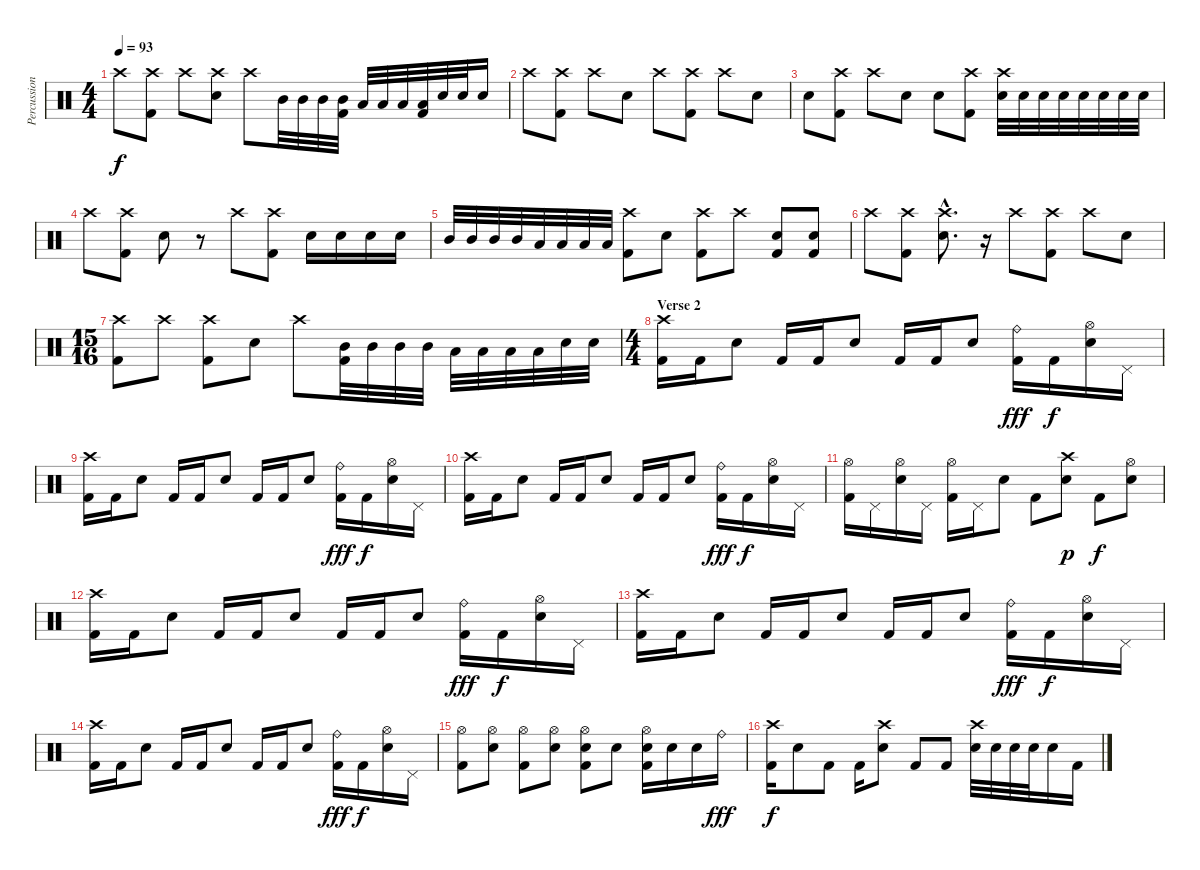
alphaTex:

\track ("Percussion" "Percussion") {instrument percussion}
\staff {score}
\articulation defaults
\ts (4 4)
\tempo 93
\clef neutral
\ks c "Crash high (hit)".8{dy f}
("Crash high (hit)" "Kick (hit) 2").8 "Crash high (hit)".8 ("Crash high (hit)" "Snare (hit) 2").8 "Crash high (hit)".8 "Mid Tom (hit)".32 "Mid Tom (hit)".32 "Mid Tom (hit)".32 ("Mid Tom (hit)" "Kick (hit) 2").32 "Low Tom (hit)".32 "Low Tom (hit)".32 "Low Tom (hit)".32 ("Low Tom (hit)" "Kick (hit) 2").32 "Snare (hit) 2".32 "Snare (hit) 2".32 "Snare (hit) 2".16 |
"Crash high (hit)".8 ("Crash high (hit)" "Kick (hit) 2").8 "Crash high (hit)".8 "Snare (hit) 2".8 "Crash high (hit)".8 ("Crash high (hit)" "Kick (hit) 2").8 "Crash high (hit)".8 "Snare (hit) 2".8 |
"Snare (hit) 2".8 ("Crash high (hit)" "Kick (hit) 2").8 "Crash high (hit)".8 "Snare (hit) 2".8 "Snare (hit) 2".8 ("Crash high (hit)" "Kick (hit) 2").8 ("Crash high (hit)" "Snare (hit) 2").32 "Snare (hit) 2".32 "Snare (hit) 2".32 "Snare (hit) 2".32 "Snare (hit) 2".32 "Snare (hit) 2".32 "Snare (hit) 2".32 "Snare (hit) 2".32 |
"Crash high (hit)".8 ("Crash high (hit)" "Kick (hit) 2").8 "Snare (hit) 2".8 r.8 "Crash high (hit)".8 ("Crash high (hit)" "Kick (hit) 2").8 "Snare (hit) 2".16 "Snare (hit) 2".16 "Snare (hit) 2".16 "Snare (hit) 2".16 |
"Mid Tom (hit)".32 "Mid Tom (hit)".32 "Mid Tom (hit)".32 "Mid Tom (hit)".32 "Low Tom (hit)".32 "Low Tom (hit)".32 "Low Tom (hit)".32 "Low Tom (hit)".32 ("Crash high (hit)" "Kick (hit) 2").8 "Snare (hit) 2".8 ("Crash high (hit)" "Kick (hit) 2").8 "Crash high (hit)".8 ("Snare (hit) 2" "Kick (hit) 2").8 ("Snare (hit) 2" "Kick (hit) 2").8 |
"Crash high (hit)".8 ("Crash high (hit)" "Kick (hit) 2").8 ("Crash high (hit)"{hac} "Snare (hit) 2"{hac}).8{d} r.16 "Crash high (hit)".8 ("Crash high (hit)" "Kick (hit) 2").8 "Crash high (hit)".8 "Snare (hit) 2".8 |
\ts (15 16)
("Crash high (hit)" "Kick (hit) 2").8 "Crash high (hit)".8 ("Crash high (hit)" "Kick (hit) 2").8 "Snare (hit) 2".8 "Crash high (hit)".8 ("Mid Tom (hit)" "Kick (hit) 2").32 "Mid Tom (hit)".32 "Mid Tom (hit)".32 "Mid Tom (hit)".32 "Low Tom (hit)".32 "Low Tom (hit)".32 "Low Tom (hit)".32 "Low Tom (hit)".32 "Snare (hit) 2".32 "Snare (hit) 2".32 |
\ts (4 4)
\section ("" "Verse 2")
("Crash high (hit)" "Kick (hit) 2").16 "Kick (hit) 2".16 "Snare (hit) 2".8 "Kick (hit) 2".16 "Kick (hit) 2".16 "Snare (hit) 2".8 "Kick (hit) 2".16 "Kick (hit) 2".16 "Snare (hit) 2".8 ("Ride (bell)" "Kick (hit) 2").16{dy fff} "Kick (hit) 2".16{dy f} ("Hi-Hat (open)" "Snare (hit) 2").16 "Pedal Hi-Hat (hit)".16 |
("Crash high (hit)" "Kick (hit) 2").16 "Kick (hit) 2".16 "Snare (hit) 2".8 "Kick (hit) 2".16 "Kick (hit) 2".16 "Snare (hit) 2".8 "Kick (hit) 2".16 "Kick (hit) 2".16 "Snare (hit) 2".8 ("Ride (bell)" "Kick (hit) 2").16{dy fff} "Kick (hit) 2".16{dy f} ("Hi-Hat (open)" "Snare (hit) 2").16 "Pedal Hi-Hat (hit)".16 |
("Crash high (hit)" "Kick (hit) 2").16 "Kick (hit) 2".16 "Snare (hit) 2".8 "Kick (hit) 2".16 "Kick (hit) 2".16 "Snare (hit) 2".8 "Kick (hit) 2".16 "Kick (hit) 2".16 "Snare (hit) 2".8 ("Ride (bell)" "Kick (hit) 2").16{dy fff} "Kick (hit) 2".16{dy f} ("Hi-Hat (open)" "Snare (hit) 2").16 "Pedal Hi-Hat (hit)".16 |
("Hi-Hat (open)" "Kick (hit) 2").16 "Pedal Hi-Hat (hit)".16 ("Hi-Hat (open)" "Snare (hit) 2").16 "Pedal Hi-Hat (hit)".16 ("Hi-Hat (open)" "Kick (hit) 2").16 "Pedal Hi-Hat (hit)".16 "Snare (hit) 2".8 "Kick (hit) 2".8 ("Crash high (hit)" "Snare (hit) 2").8{dy p} "Kick (hit) 2".8{dy f} ("Hi-Hat (open)" "Snare (hit) 2").8 |
("Crash high (hit)" "Kick (hit) 2").16 "Kick (hit) 2".16 "Snare (hit) 2".8 "Kick (hit) 2".16 "Kick (hit) 2".16 "Snare (hit) 2".8 "Kick (hit) 2".16 "Kick (hit) 2".16 "Snare (hit) 2".8 ("Ride (bell)" "Kick (hit) 2").16{dy fff} "Kick (hit) 2".16{dy f} ("Hi-Hat (open)" "Snare (hit) 2").16 "Pedal Hi-Hat (hit)".16 |
("Crash high (hit)" "Kick (hit) 2").16 "Kick (hit) 2".16 "Snare (hit) 2".8 "Kick (hit) 2".16 "Kick (hit) 2".16 "Snare (hit) 2".8 "Kick (hit) 2".16 "Kick (hit) 2".16 "Snare (hit) 2".8 ("Ride (bell)" "Kick (hit) 2").16{dy fff} "Kick (hit) 2".16{dy f} ("Hi-Hat (open)" "Snare (hit) 2").16 "Pedal Hi-Hat (hit)".16 |
("Crash high (hit)" "Kick (hit) 2").16 "Kick (hit) 2".16 "Snare (hit) 2".8 "Kick (hit) 2".16 "Kick (hit) 2".16 "Snare (hit) 2".8 "Kick (hit) 2".16 "Kick (hit) 2".16 "Snare (hit) 2".8 ("Ride (bell)" "Kick (hit) 2").16{dy fff} "Kick (hit) 2".16{dy f} ("Hi-Hat (open)" "Snare (hit) 2").16 "Pedal Hi-Hat (hit)".16 |
("Hi-Hat (open)" "Kick (hit) 2").8 ("Hi-Hat (open)" "Snare (hit) 2").8 ("Hi-Hat (open)" "Kick (hit) 2").8 ("Hi-Hat (open)" "Snare (hit) 2").8 ("Hi-Hat (open)" "Snare (hit) 2" "Kick (hit) 2").8 "Snare (hit) 2".8 ("Hi-Hat (open)" "Snare (hit) 2" "Kick (hit) 2").16 "Snare (hit) 2".16 "Snare (hit) 2".16 "Ride (bell)".16{dy fff} |
("Crash high (hit)" "Kick (hit) 2").16{dy f} "Snare (hit) 2".8 "Kick (hit) 2".8 "Kick (hit) 2".16 ("Crash high (hit)" "Snare (hit) 2").8 "Kick (hit) 2".8 "Kick (hit) 2".8 ("Crash high (hit)" "Snare (hit) 2").32 "Snare (hit) 2".32 "Snare (hit) 2".32 "Snare (hit) 2".32 "Snare (hit) 2".16 "Kick (hit) 2".16
